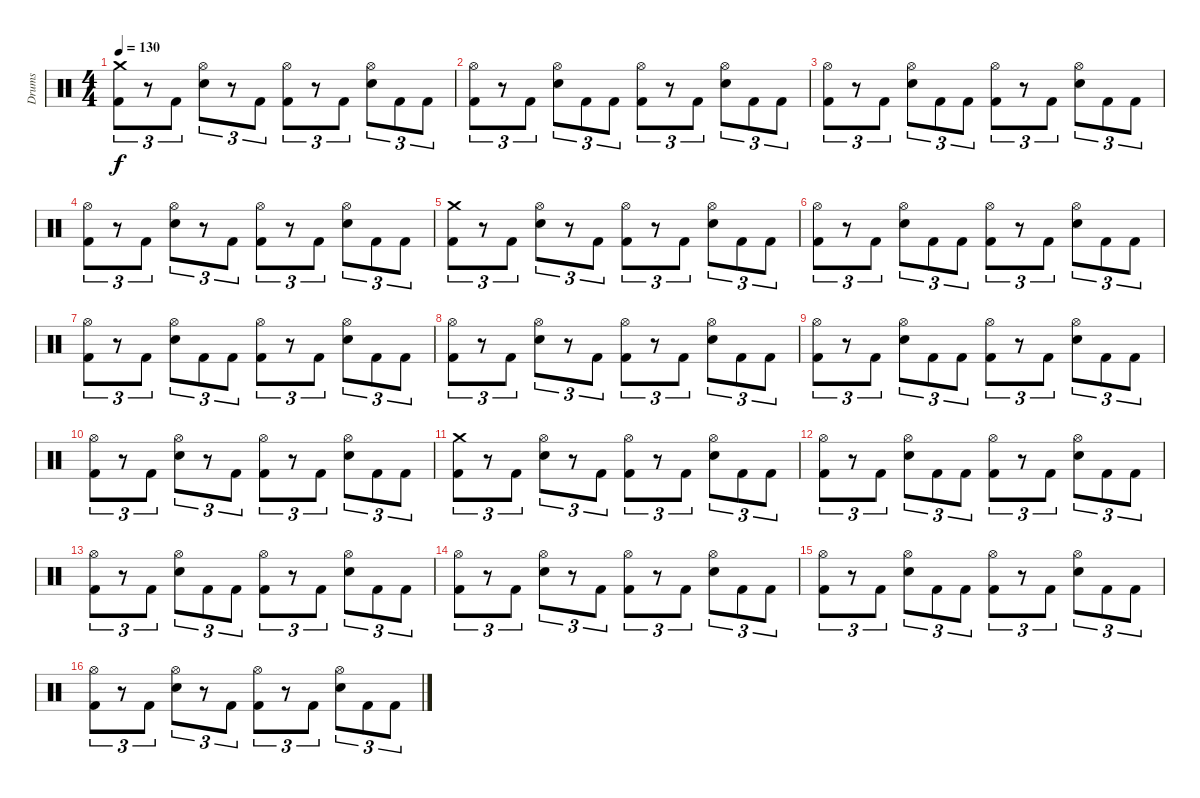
\track ("Drums" "Drums") {instrument percussion}
\staff {score}
\articulation defaults
\ts (4 4)
\tempo 130
\clef neutral
\ks c
("Crash medium (hit)" "Kick (hit) 2").8{tu (3 2) dy f} r.8{tu (3 2)} "Kick (hit) 2".8{tu (3 2)} ("Hi-Hat (open)" "Snare (hit) 2").8{tu (3 2)} r.8{tu (3 2)} "Kick (hit) 2".8{tu (3 2)} ("Hi-Hat (open)" "Kick (hit) 2").8{tu (3 2)} r.8{tu (3 2)} "Kick (hit) 2".8{tu (3 2)} ("Hi-Hat (open)" "Snare (hit) 2").8{tu (3 2)} "Kick (hit) 2".8{tu (3 2)} "Kick (hit) 2".8{tu (3 2)} |
("Hi-Hat (open)" "Kick (hit) 2").8{tu (3 2)} r.8{tu (3 2)} "Kick (hit) 2".8{tu (3 2)} ("Hi-Hat (open)" "Snare (hit) 2").8{tu (3 2)} "Kick (hit) 2".8{tu (3 2)} "Kick (hit) 2".8{tu (3 2)} ("Hi-Hat (open)" "Kick (hit) 2").8{tu (3 2)} r.8{tu (3 2)} "Kick (hit) 2".8{tu (3 2)} ("Hi-Hat (open)" "Snare (hit) 2").8{tu (3 2)} "Kick (hit) 2".8{tu (3 2)} "Kick (hit) 2".8{tu (3 2)} |
("Hi-Hat (open)" "Kick (hit) 2").8{tu (3 2)} r.8{tu (3 2)} "Kick (hit) 2".8{tu (3 2)} ("Hi-Hat (open)" "Snare (hit) 2").8{tu (3 2)} "Kick (hit) 2".8{tu (3 2)} "Kick (hit) 2".8{tu (3 2)} ("Hi-Hat (open)" "Kick (hit) 2").8{tu (3 2)} r.8{tu (3 2)} "Kick (hit) 2".8{tu (3 2)} ("Hi-Hat (open)" "Snare (hit) 2").8{tu (3 2)} "Kick (hit) 2".8{tu (3 2)} "Kick (hit) 2".8{tu (3 2)} |
("Hi-Hat (open)" "Kick (hit) 2").8{tu (3 2)} r.8{tu (3 2)} "Kick (hit) 2".8{tu (3 2)} ("Hi-Hat (open)" "Snare (hit) 2").8{tu (3 2)} r.8{tu (3 2)} "Kick (hit) 2".8{tu (3 2)} ("Hi-Hat (open)" "Kick (hit) 2").8{tu (3 2)} r.8{tu (3 2)} "Kick (hit) 2".8{tu (3 2)} ("Hi-Hat (open)" "Snare (hit) 2").8{tu (3 2)} "Kick (hit) 2".8{tu (3 2)} "Kick (hit) 2".8{tu (3 2)} |
("Crash medium (hit)" "Kick (hit) 2").8{tu (3 2)} r.8{tu (3 2)} "Kick (hit) 2".8{tu (3 2)} ("Hi-Hat (open)" "Snare (hit) 2").8{tu (3 2)} r.8{tu (3 2)} "Kick (hit) 2".8{tu (3 2)} ("Hi-Hat (open)" "Kick (hit) 2").8{tu (3 2)} r.8{tu (3 2)} "Kick (hit) 2".8{tu (3 2)} ("Hi-Hat (open)" "Snare (hit) 2").8{tu (3 2)} "Kick (hit) 2".8{tu (3 2)} "Kick (hit) 2".8{tu (3 2)} |
("Hi-Hat (open)" "Kick (hit) 2").8{tu (3 2)} r.8{tu (3 2)} "Kick (hit) 2".8{tu (3 2)} ("Hi-Hat (open)" "Snare (hit) 2").8{tu (3 2)} "Kick (hit) 2".8{tu (3 2)} "Kick (hit) 2".8{tu (3 2)} ("Hi-Hat (open)" "Kick (hit) 2").8{tu (3 2)} r.8{tu (3 2)} "Kick (hit) 2".8{tu (3 2)} ("Hi-Hat (open)" "Snare (hit) 2").8{tu (3 2)} "Kick (hit) 2".8{tu (3 2)} "Kick (hit) 2".8{tu (3 2)} |
("Hi-Hat (open)" "Kick (hit) 2").8{tu (3 2)} r.8{tu (3 2)} "Kick (hit) 2".8{tu (3 2)} ("Hi-Hat (open)" "Snare (hit) 2").8{tu (3 2)} "Kick (hit) 2".8{tu (3 2)} "Kick (hit) 2".8{tu (3 2)} ("Hi-Hat (open)" "Kick (hit) 2").8{tu (3 2)} r.8{tu (3 2)} "Kick (hit) 2".8{tu (3 2)} ("Hi-Hat (open)" "Snare (hit) 2").8{tu (3 2)} "Kick (hit) 2".8{tu (3 2)} "Kick (hit) 2".8{tu (3 2)} |
("Hi-Hat (open)" "Kick (hit) 2").8{tu (3 2)} r.8{tu (3 2)} "Kick (hit) 2".8{tu (3 2)} ("Hi-Hat (open)" "Snare (hit) 2").8{tu (3 2)} r.8{tu (3 2)} "Kick (hit) 2".8{tu (3 2)} ("Hi-Hat (open)" "Kick (hit) 2").8{tu (3 2)} r.8{tu (3 2)} "Kick (hit) 2".8{tu (3 2)} ("Hi-Hat (open)" "Snare (hit) 2").8{tu (3 2)} "Kick (hit) 2".8{tu (3 2)} "Kick (hit) 2".8{tu (3 2)} |
("Hi-Hat (open)" "Kick (hit) 2").8{tu (3 2)} r.8{tu (3 2)} "Kick (hit) 2".8{tu (3 2)} ("Hi-Hat (open)" "Snare (hit) 2").8{tu (3 2)} "Kick (hit) 2".8{tu (3 2)} "Kick (hit) 2".8{tu (3 2)} ("Hi-Hat (open)" "Kick (hit) 2").8{tu (3 2)} r.8{tu (3 2)} "Kick (hit) 2".8{tu (3 2)} ("Hi-Hat (open)" "Snare (hit) 2").8{tu (3 2)} "Kick (hit) 2".8{tu (3 2)} "Kick (hit) 2".8{tu (3 2)} |
("Hi-Hat (open)" "Kick (hit) 2").8{tu (3 2)} r.8{tu (3 2)} "Kick (hit) 2".8{tu (3 2)} ("Hi-Hat (open)" "Snare (hit) 2").8{tu (3 2)} r.8{tu (3 2)} "Kick (hit) 2".8{tu (3 2)} ("Hi-Hat (open)" "Kick (hit) 2").8{tu (3 2)} r.8{tu (3 2)} "Kick (hit) 2".8{tu (3 2)} ("Hi-Hat (open)" "Snare (hit) 2").8{tu (3 2)} "Kick (hit) 2".8{tu (3 2)} "Kick (hit) 2".8{tu (3 2)} |
("Crash medium (hit)" "Kick (hit) 2").8{tu (3 2)} r.8{tu (3 2)} "Kick (hit) 2".8{tu (3 2)} ("Hi-Hat (open)" "Snare (hit) 2").8{tu (3 2)} r.8{tu (3 2)} "Kick (hit) 2".8{tu (3 2)} ("Hi-Hat (open)" "Kick (hit) 2").8{tu (3 2)} r.8{tu (3 2)} "Kick (hit) 2".8{tu (3 2)} ("Hi-Hat (open)" "Snare (hit) 2").8{tu (3 2)} "Kick (hit) 2".8{tu (3 2)} "Kick (hit) 2".8{tu (3 2)} |
("Hi-Hat (open)" "Kick (hit) 2").8{tu (3 2)} r.8{tu (3 2)} "Kick (hit) 2".8{tu (3 2)} ("Hi-Hat (open)" "Snare (hit) 2").8{tu (3 2)} "Kick (hit) 2".8{tu (3 2)} "Kick (hit) 2".8{tu (3 2)} ("Hi-Hat (open)" "Kick (hit) 2").8{tu (3 2)} r.8{tu (3 2)} "Kick (hit) 2".8{tu (3 2)} ("Hi-Hat (open)" "Snare (hit) 2").8{tu (3 2)} "Kick (hit) 2".8{tu (3 2)} "Kick (hit) 2".8{tu (3 2)} |
("Hi-Hat (open)" "Kick (hit) 2").8{tu (3 2)} r.8{tu (3 2)} "Kick (hit) 2".8{tu (3 2)} ("Hi-Hat (open)" "Snare (hit) 2").8{tu (3 2)} "Kick (hit) 2".8{tu (3 2)} "Kick (hit) 2".8{tu (3 2)} ("Hi-Hat (open)" "Kick (hit) 2").8{tu (3 2)} r.8{tu (3 2)} "Kick (hit) 2".8{tu (3 2)} ("Hi-Hat (open)" "Snare (hit) 2").8{tu (3 2)} "Kick (hit) 2".8{tu (3 2)} "Kick (hit) 2".8{tu (3 2)} |
("Hi-Hat (open)" "Kick (hit) 2").8{tu (3 2)} r.8{tu (3 2)} "Kick (hit) 2".8{tu (3 2)} ("Hi-Hat (open)" "Snare (hit) 2").8{tu (3 2)} r.8{tu (3 2)} "Kick (hit) 2".8{tu (3 2)} ("Hi-Hat (open)" "Kick (hit) 2").8{tu (3 2)} r.8{tu (3 2)} "Kick (hit) 2".8{tu (3 2)} ("Hi-Hat (open)" "Snare (hit) 2").8{tu (3 2)} "Kick (hit) 2".8{tu (3 2)} "Kick (hit) 2".8{tu (3 2)} |
("Hi-Hat (open)" "Kick (hit) 2").8{tu (3 2)} r.8{tu (3 2)} "Kick (hit) 2".8{tu (3 2)} ("Hi-Hat (open)" "Snare (hit) 2").8{tu (3 2)} "Kick (hit) 2".8{tu (3 2)} "Kick (hit) 2".8{tu (3 2)} ("Hi-Hat (open)" "Kick (hit) 2").8{tu (3 2)} r.8{tu (3 2)} "Kick (hit) 2".8{tu (3 2)} ("Hi-Hat (open)" "Snare (hit) 2").8{tu (3 2)} "Kick (hit) 2".8{tu (3 2)} "Kick (hit) 2".8{tu (3 2)} |
("Hi-Hat (open)" "Kick (hit) 2").8{tu (3 2)} r.8{tu (3 2)} "Kick (hit) 2".8{tu (3 2)} ("Hi-Hat (open)" "Snare (hit) 2").8{tu (3 2)} r.8{tu (3 2)} "Kick (hit) 2".8{tu (3 2)} ("Hi-Hat (open)" "Kick (hit) 2").8{tu (3 2)} r.8{tu (3 2)} "Kick (hit) 2".8{tu (3 2)} ("Hi-Hat (open)" "Snare (hit) 2").8{tu (3 2)} "Kick (hit) 2".8{tu (3 2)} "Kick (hit) 2".8{tu (3 2)}
